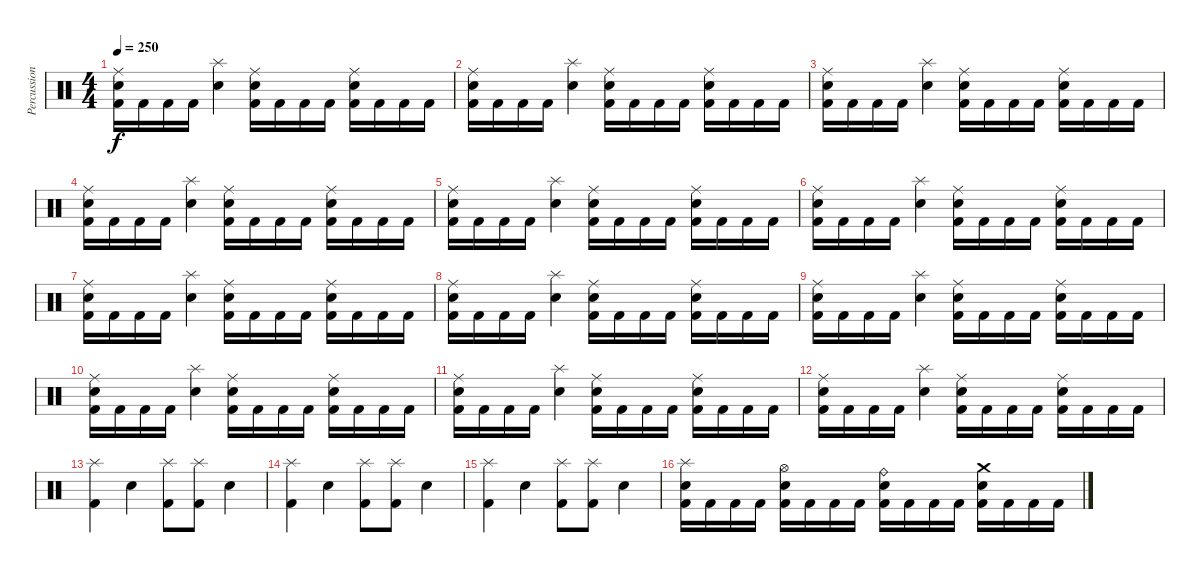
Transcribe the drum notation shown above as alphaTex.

\track ("Percussion" "Percussion") {instrument percussion}
\staff {score}
\articulation defaults
\ts (4 4)
\tempo 250
\clef neutral
\ks c
("Ride (middle)" "Electric Snare (hit)" "Kick (hit) 2").16{dy f} "Kick (hit) 2".16 "Kick (hit) 2".16 "Kick (hit) 2".16 ("Splash (hit)" "Electric Snare (hit)").4 ("Ride (middle)" "Electric Snare (hit)" "Kick (hit) 2").16 "Kick (hit) 2".16 "Kick (hit) 2".16 "Kick (hit) 2".16 ("Ride (middle)" "Electric Snare (hit)" "Kick (hit) 2").16 "Kick (hit) 2".16 "Kick (hit) 2".16 "Kick (hit) 2".16 |
("Ride (middle)" "Electric Snare (hit)" "Kick (hit) 2").16 "Kick (hit) 2".16 "Kick (hit) 2".16 "Kick (hit) 2".16 ("Splash (hit)" "Electric Snare (hit)").4 ("Ride (middle)" "Electric Snare (hit)" "Kick (hit) 2").16 "Kick (hit) 2".16 "Kick (hit) 2".16 "Kick (hit) 2".16 ("Ride (middle)" "Electric Snare (hit)" "Kick (hit) 2").16 "Kick (hit) 2".16 "Kick (hit) 2".16 "Kick (hit) 2".16 |
("Ride (middle)" "Electric Snare (hit)" "Kick (hit) 2").16 "Kick (hit) 2".16 "Kick (hit) 2".16 "Kick (hit) 2".16 ("Splash (hit)" "Electric Snare (hit)").4 ("Ride (middle)" "Electric Snare (hit)" "Kick (hit) 2").16 "Kick (hit) 2".16 "Kick (hit) 2".16 "Kick (hit) 2".16 ("Ride (middle)" "Electric Snare (hit)" "Kick (hit) 2").16 "Kick (hit) 2".16 "Kick (hit) 2".16 "Kick (hit) 2".16 |
("Ride (middle)" "Electric Snare (hit)" "Kick (hit) 2").16 "Kick (hit) 2".16 "Kick (hit) 2".16 "Kick (hit) 2".16 ("Splash (hit)" "Electric Snare (hit)").4 ("Ride (middle)" "Electric Snare (hit)" "Kick (hit) 2").16 "Kick (hit) 2".16 "Kick (hit) 2".16 "Kick (hit) 2".16 ("Ride (middle)" "Electric Snare (hit)" "Kick (hit) 2").16 "Kick (hit) 2".16 "Kick (hit) 2".16 "Kick (hit) 2".16 |
("Ride (middle)" "Electric Snare (hit)" "Kick (hit) 2").16 "Kick (hit) 2".16 "Kick (hit) 2".16 "Kick (hit) 2".16 ("Splash (hit)" "Electric Snare (hit)").4 ("Ride (middle)" "Electric Snare (hit)" "Kick (hit) 2").16 "Kick (hit) 2".16 "Kick (hit) 2".16 "Kick (hit) 2".16 ("Ride (middle)" "Electric Snare (hit)" "Kick (hit) 2").16 "Kick (hit) 2".16 "Kick (hit) 2".16 "Kick (hit) 2".16 |
("Ride (middle)" "Electric Snare (hit)" "Kick (hit) 2").16 "Kick (hit) 2".16 "Kick (hit) 2".16 "Kick (hit) 2".16 ("Splash (hit)" "Electric Snare (hit)").4 ("Ride (middle)" "Electric Snare (hit)" "Kick (hit) 2").16 "Kick (hit) 2".16 "Kick (hit) 2".16 "Kick (hit) 2".16 ("Ride (middle)" "Electric Snare (hit)" "Kick (hit) 2").16 "Kick (hit) 2".16 "Kick (hit) 2".16 "Kick (hit) 2".16 |
("Ride (middle)" "Electric Snare (hit)" "Kick (hit) 2").16 "Kick (hit) 2".16 "Kick (hit) 2".16 "Kick (hit) 2".16 ("Splash (hit)" "Electric Snare (hit)").4 ("Ride (middle)" "Electric Snare (hit)" "Kick (hit) 2").16 "Kick (hit) 2".16 "Kick (hit) 2".16 "Kick (hit) 2".16 ("Ride (middle)" "Electric Snare (hit)" "Kick (hit) 2").16 "Kick (hit) 2".16 "Kick (hit) 2".16 "Kick (hit) 2".16 |
("Ride (middle)" "Electric Snare (hit)" "Kick (hit) 2").16 "Kick (hit) 2".16 "Kick (hit) 2".16 "Kick (hit) 2".16 ("Splash (hit)" "Electric Snare (hit)").4 ("Ride (middle)" "Electric Snare (hit)" "Kick (hit) 2").16 "Kick (hit) 2".16 "Kick (hit) 2".16 "Kick (hit) 2".16 ("Ride (middle)" "Electric Snare (hit)" "Kick (hit) 2").16 "Kick (hit) 2".16 "Kick (hit) 2".16 "Kick (hit) 2".16 |
("Ride (middle)" "Electric Snare (hit)" "Kick (hit) 2").16 "Kick (hit) 2".16 "Kick (hit) 2".16 "Kick (hit) 2".16 ("Splash (hit)" "Electric Snare (hit)").4 ("Ride (middle)" "Electric Snare (hit)" "Kick (hit) 2").16 "Kick (hit) 2".16 "Kick (hit) 2".16 "Kick (hit) 2".16 ("Ride (middle)" "Electric Snare (hit)" "Kick (hit) 2").16 "Kick (hit) 2".16 "Kick (hit) 2".16 "Kick (hit) 2".16 |
("Ride (middle)" "Electric Snare (hit)" "Kick (hit) 2").16 "Kick (hit) 2".16 "Kick (hit) 2".16 "Kick (hit) 2".16 ("Splash (hit)" "Electric Snare (hit)").4 ("Ride (middle)" "Electric Snare (hit)" "Kick (hit) 2").16 "Kick (hit) 2".16 "Kick (hit) 2".16 "Kick (hit) 2".16 ("Ride (middle)" "Electric Snare (hit)" "Kick (hit) 2").16 "Kick (hit) 2".16 "Kick (hit) 2".16 "Kick (hit) 2".16 |
("Ride (middle)" "Electric Snare (hit)" "Kick (hit) 2").16 "Kick (hit) 2".16 "Kick (hit) 2".16 "Kick (hit) 2".16 ("Splash (hit)" "Electric Snare (hit)").4 ("Ride (middle)" "Electric Snare (hit)" "Kick (hit) 2").16 "Kick (hit) 2".16 "Kick (hit) 2".16 "Kick (hit) 2".16 ("Ride (middle)" "Electric Snare (hit)" "Kick (hit) 2").16 "Kick (hit) 2".16 "Kick (hit) 2".16 "Kick (hit) 2".16 |
("Ride (middle)" "Electric Snare (hit)" "Kick (hit) 2").16 "Kick (hit) 2".16 "Kick (hit) 2".16 "Kick (hit) 2".16 ("Splash (hit)" "Electric Snare (hit)").4 ("Ride (middle)" "Electric Snare (hit)" "Kick (hit) 2").16 "Kick (hit) 2".16 "Kick (hit) 2".16 "Kick (hit) 2".16 ("Ride (middle)" "Electric Snare (hit)" "Kick (hit) 2").16 "Kick (hit) 2".16 "Kick (hit) 2".16 "Kick (hit) 2".16 |
("Splash (hit)" "Kick (hit) 2").4 "Electric Snare (hit)".4 ("Splash (hit)" "Kick (hit) 2").8 ("Splash (hit)" "Kick (hit) 2").8 "Electric Snare (hit)".4 |
("Splash (hit)" "Kick (hit) 2").4 "Electric Snare (hit)".4 ("Splash (hit)" "Kick (hit) 2").8 ("Splash (hit)" "Kick (hit) 2").8 "Electric Snare (hit)".4 |
("Splash (hit)" "Kick (hit) 2").4 "Electric Snare (hit)".4 ("Splash (hit)" "Kick (hit) 2").8 ("Splash (hit)" "Kick (hit) 2").8 "Electric Snare (hit)".4 |
("Splash (hit)" "Electric Snare (hit)" "Kick (hit) 2").16 "Kick (hit) 2".16 "Kick (hit) 2".16 "Kick (hit) 2".16 ("Hi-Hat (open)" "Electric Snare (hit)" "Kick (hit) 2").16 "Kick (hit) 2".16 "Kick (hit) 2".16 "Kick (hit) 2".16 ("Ride (bell)" "Electric Snare (hit)" "Kick (hit) 2").16 "Kick (hit) 2".16 "Kick (hit) 2".16 "Kick (hit) 2".16 ("Crash medium (hit)" "Electric Snare (hit)" "Kick (hit) 2").16 "Kick (hit) 2".16 "Kick (hit) 2".16 "Kick (hit) 2".16
